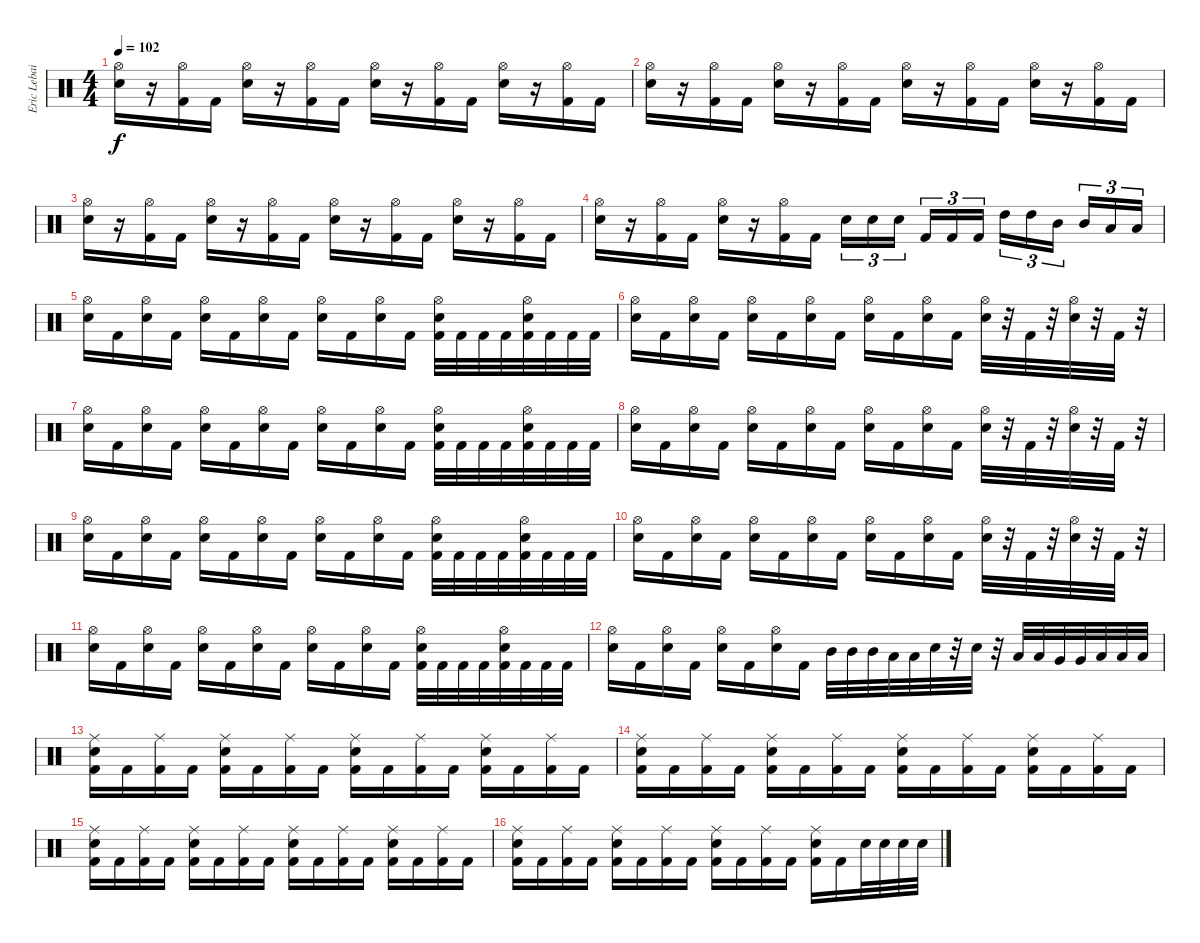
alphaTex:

\track ("Eric Lebailly" "Eric Lebai") {instrument percussion}
\staff {score}
\articulation defaults
\ts (4 4)
\tempo 102
\clef neutral
\ks c
("Hi-Hat (open)" "Snare (hit) 2").16{dy f} r.16 ("Hi-Hat (open)" "Kick (hit) 2").16 "Kick (hit) 2".16 ("Hi-Hat (open)" "Snare (hit) 2").16 r.16 ("Hi-Hat (open)" "Kick (hit) 2").16 "Kick (hit) 2".16 ("Hi-Hat (open)" "Snare (hit) 2").16 r.16 ("Hi-Hat (open)" "Kick (hit) 2").16 "Kick (hit) 2".16 ("Hi-Hat (open)" "Snare (hit) 2").16 r.16 ("Hi-Hat (open)" "Kick (hit) 2").16 "Kick (hit) 2".16 |
("Hi-Hat (open)" "Snare (hit) 2").16 r.16 ("Hi-Hat (open)" "Kick (hit) 2").16 "Kick (hit) 2".16 ("Hi-Hat (open)" "Snare (hit) 2").16 r.16 ("Hi-Hat (open)" "Kick (hit) 2").16 "Kick (hit) 2".16 ("Hi-Hat (open)" "Snare (hit) 2").16 r.16 ("Hi-Hat (open)" "Kick (hit) 2").16 "Kick (hit) 2".16 ("Hi-Hat (open)" "Snare (hit) 2").16 r.16 ("Hi-Hat (open)" "Kick (hit) 2").16 "Kick (hit) 2".16 |
("Hi-Hat (open)" "Snare (hit) 2").16 r.16 ("Hi-Hat (open)" "Kick (hit) 2").16 "Kick (hit) 2".16 ("Hi-Hat (open)" "Snare (hit) 2").16 r.16 ("Hi-Hat (open)" "Kick (hit) 2").16 "Kick (hit) 2".16 ("Hi-Hat (open)" "Snare (hit) 2").16 r.16 ("Hi-Hat (open)" "Kick (hit) 2").16 "Kick (hit) 2".16 ("Hi-Hat (open)" "Snare (hit) 2").16 r.16 ("Hi-Hat (open)" "Kick (hit) 2").16 "Kick (hit) 2".16 |
("Hi-Hat (open)" "Snare (hit) 2").16 r.16 ("Hi-Hat (open)" "Kick (hit) 2").16 "Kick (hit) 2".16 ("Hi-Hat (open)" "Snare (hit) 2").16 r.16 ("Hi-Hat (open)" "Kick (hit) 2").16 "Kick (hit) 2".16 "Snare (hit) 2".16{tu (3 2)} "Snare (hit) 2".16{tu (3 2)} "Snare (hit) 2".16{tu (3 2) beam splitsecondary} "Kick (hit) 2".16{tu (3 2)} "Kick (hit) 2".16{tu (3 2)} "Kick (hit) 2".16{tu (3 2)} "High Tom (hit)".16{tu (3 2)} "High Tom (hit)".16{tu (3 2)} "Mid Tom (hit)".16{tu (3 2) beam splitsecondary} "Mid Tom (hit)".16{tu (3 2)} "Low Tom (hit)".16{tu (3 2)} "Low Tom (hit)".16{tu (3 2)} |
("Hi-Hat (open)" "Snare (hit) 2").16 "Kick (hit) 2".16 ("Hi-Hat (open)" "Snare (hit) 2").16 "Kick (hit) 2".16 ("Hi-Hat (open)" "Snare (hit) 2").16 "Kick (hit) 2".16 ("Hi-Hat (open)" "Snare (hit) 2").16 "Kick (hit) 2".16 ("Hi-Hat (open)" "Snare (hit) 2").16 "Kick (hit) 2".16 ("Hi-Hat (open)" "Snare (hit) 2").16 "Kick (hit) 2".16 ("Hi-Hat (open)" "Snare (hit) 2" "Kick (hit) 2").32 "Kick (hit) 2".32 "Kick (hit) 2".32 "Kick (hit) 2".32 ("Hi-Hat (open)" "Snare (hit) 2" "Kick (hit) 2").32 "Kick (hit) 2".32 "Kick (hit) 2".32 "Kick (hit) 2".32 |
("Hi-Hat (open)" "Snare (hit) 2").16 "Kick (hit) 2".16 ("Hi-Hat (open)" "Snare (hit) 2").16 "Kick (hit) 2".16 ("Hi-Hat (open)" "Snare (hit) 2").16 "Kick (hit) 2".16 ("Hi-Hat (open)" "Snare (hit) 2").16 "Kick (hit) 2".16 ("Hi-Hat (open)" "Snare (hit) 2").16 "Kick (hit) 2".16 ("Hi-Hat (open)" "Snare (hit) 2").16 "Kick (hit) 2".16 ("Hi-Hat (open)" "Snare (hit) 2").32 r.32 "Kick (hit) 2".32 r.32 ("Hi-Hat (open)" "Snare (hit) 2").32 r.32 "Kick (hit) 2".32 r.32 |
("Hi-Hat (open)" "Snare (hit) 2").16 "Kick (hit) 2".16 ("Hi-Hat (open)" "Snare (hit) 2").16 "Kick (hit) 2".16 ("Hi-Hat (open)" "Snare (hit) 2").16 "Kick (hit) 2".16 ("Hi-Hat (open)" "Snare (hit) 2").16 "Kick (hit) 2".16 ("Hi-Hat (open)" "Snare (hit) 2").16 "Kick (hit) 2".16 ("Hi-Hat (open)" "Snare (hit) 2").16 "Kick (hit) 2".16 ("Hi-Hat (open)" "Snare (hit) 2" "Kick (hit) 2").32 "Kick (hit) 2".32 "Kick (hit) 2".32 "Kick (hit) 2".32 ("Hi-Hat (open)" "Snare (hit) 2" "Kick (hit) 2").32 "Kick (hit) 2".32 "Kick (hit) 2".32 "Kick (hit) 2".32 |
("Hi-Hat (open)" "Snare (hit) 2").16 "Kick (hit) 2".16 ("Hi-Hat (open)" "Snare (hit) 2").16 "Kick (hit) 2".16 ("Hi-Hat (open)" "Snare (hit) 2").16 "Kick (hit) 2".16 ("Hi-Hat (open)" "Snare (hit) 2").16 "Kick (hit) 2".16 ("Hi-Hat (open)" "Snare (hit) 2").16 "Kick (hit) 2".16 ("Hi-Hat (open)" "Snare (hit) 2").16 "Kick (hit) 2".16 ("Hi-Hat (open)" "Snare (hit) 2").32 r.32 "Kick (hit) 2".32 r.32 ("Hi-Hat (open)" "Snare (hit) 2").32 r.32 "Kick (hit) 2".32 r.32 |
("Hi-Hat (open)" "Snare (hit) 2").16 "Kick (hit) 2".16 ("Hi-Hat (open)" "Snare (hit) 2").16 "Kick (hit) 2".16 ("Hi-Hat (open)" "Snare (hit) 2").16 "Kick (hit) 2".16 ("Hi-Hat (open)" "Snare (hit) 2").16 "Kick (hit) 2".16 ("Hi-Hat (open)" "Snare (hit) 2").16 "Kick (hit) 2".16 ("Hi-Hat (open)" "Snare (hit) 2").16 "Kick (hit) 2".16 ("Hi-Hat (open)" "Snare (hit) 2" "Kick (hit) 2").32 "Kick (hit) 2".32 "Kick (hit) 2".32 "Kick (hit) 2".32 ("Hi-Hat (open)" "Snare (hit) 2" "Kick (hit) 2").32 "Kick (hit) 2".32 "Kick (hit) 2".32 "Kick (hit) 2".32 |
("Hi-Hat (open)" "Snare (hit) 2").16 "Kick (hit) 2".16 ("Hi-Hat (open)" "Snare (hit) 2").16 "Kick (hit) 2".16 ("Hi-Hat (open)" "Snare (hit) 2").16 "Kick (hit) 2".16 ("Hi-Hat (open)" "Snare (hit) 2").16 "Kick (hit) 2".16 ("Hi-Hat (open)" "Snare (hit) 2").16 "Kick (hit) 2".16 ("Hi-Hat (open)" "Snare (hit) 2").16 "Kick (hit) 2".16 ("Hi-Hat (open)" "Snare (hit) 2").32 r.32 "Kick (hit) 2".32 r.32 ("Hi-Hat (open)" "Snare (hit) 2").32 r.32 "Kick (hit) 2".32 r.32 |
("Hi-Hat (open)" "Snare (hit) 2").16 "Kick (hit) 2".16 ("Hi-Hat (open)" "Snare (hit) 2").16 "Kick (hit) 2".16 ("Hi-Hat (open)" "Snare (hit) 2").16 "Kick (hit) 2".16 ("Hi-Hat (open)" "Snare (hit) 2").16 "Kick (hit) 2".16 ("Hi-Hat (open)" "Snare (hit) 2").16 "Kick (hit) 2".16 ("Hi-Hat (open)" "Snare (hit) 2").16 "Kick (hit) 2".16 ("Hi-Hat (open)" "Snare (hit) 2" "Kick (hit) 2").32 "Kick (hit) 2".32 "Kick (hit) 2".32 "Kick (hit) 2".32 ("Hi-Hat (open)" "Snare (hit) 2" "Kick (hit) 2").32 "Kick (hit) 2".32 "Kick (hit) 2".32 "Kick (hit) 2".32 |
("Hi-Hat (open)" "Snare (hit) 2").16 "Kick (hit) 2".16 ("Hi-Hat (open)" "Snare (hit) 2").16 "Kick (hit) 2".16 ("Hi-Hat (open)" "Snare (hit) 2").16 "Kick (hit) 2".16 ("Hi-Hat (open)" "Snare (hit) 2").16 "Kick (hit) 2".16 "Mid Tom (hit)".32 "Mid Tom (hit)".32 "Mid Tom (hit)".32 "Low Tom (hit)".32 "Low Tom (hit)".32 "Snare (hit) 2".32 r.32 "Snare (hit) 2".32 r.32 "Low Tom (hit)".32 "Low Tom (hit)".32 "Very Low Tom (hit)".32 "Very Low Tom (hit)".32 "Low Floor Tom (hit)".32 "Low Floor Tom (hit)".32 "Low Floor Tom (hit)".32 |
("Ride (middle)" "Snare (hit) 2" "Kick (hit) 2").16 "Kick (hit) 2".16 ("Ride (middle)" "Kick (hit) 2").16 "Kick (hit) 2".16 ("Ride (middle)" "Snare (hit) 2" "Kick (hit) 2").16 "Kick (hit) 2".16 ("Ride (middle)" "Kick (hit) 2").16 "Kick (hit) 2".16 ("Ride (middle)" "Snare (hit) 2" "Kick (hit) 2").16 "Kick (hit) 2".16 ("Ride (middle)" "Kick (hit) 2").16 "Kick (hit) 2".16 ("Ride (middle)" "Snare (hit) 2" "Kick (hit) 2").16 "Kick (hit) 2".16 ("Ride (middle)" "Kick (hit) 2").16 "Kick (hit) 2".16 |
("Ride (middle)" "Snare (hit) 2" "Kick (hit) 2").16 "Kick (hit) 2".16 ("Ride (middle)" "Kick (hit) 2").16 "Kick (hit) 2".16 ("Ride (middle)" "Snare (hit) 2" "Kick (hit) 2").16 "Kick (hit) 2".16 ("Ride (middle)" "Kick (hit) 2").16 "Kick (hit) 2".16 ("Ride (middle)" "Snare (hit) 2" "Kick (hit) 2").16 "Kick (hit) 2".16 ("Ride (middle)" "Kick (hit) 2").16 "Kick (hit) 2".16 ("Ride (middle)" "Snare (hit) 2" "Kick (hit) 2").16 "Kick (hit) 2".16 ("Ride (middle)" "Kick (hit) 2").16 "Kick (hit) 2".16 |
("Ride (middle)" "Snare (hit) 2" "Kick (hit) 2").16 "Kick (hit) 2".16 ("Ride (middle)" "Kick (hit) 2").16 "Kick (hit) 2".16 ("Ride (middle)" "Snare (hit) 2" "Kick (hit) 2").16 "Kick (hit) 2".16 ("Ride (middle)" "Kick (hit) 2").16 "Kick (hit) 2".16 ("Ride (middle)" "Snare (hit) 2" "Kick (hit) 2").16 "Kick (hit) 2".16 ("Ride (middle)" "Kick (hit) 2").16 "Kick (hit) 2".16 ("Ride (middle)" "Snare (hit) 2" "Kick (hit) 2").16 "Kick (hit) 2".16 ("Ride (middle)" "Kick (hit) 2").16 "Kick (hit) 2".16 |
("Ride (middle)" "Snare (hit) 2" "Kick (hit) 2").16 "Kick (hit) 2".16 ("Ride (middle)" "Kick (hit) 2").16 "Kick (hit) 2".16 ("Ride (middle)" "Snare (hit) 2" "Kick (hit) 2").16 "Kick (hit) 2".16 ("Ride (middle)" "Kick (hit) 2").16 "Kick (hit) 2".16 ("Ride (middle)" "Snare (hit) 2" "Kick (hit) 2").16 "Kick (hit) 2".16 ("Ride (middle)" "Kick (hit) 2").16 "Kick (hit) 2".16 ("Ride (middle)" "Snare (hit) 2" "Kick (hit) 2").16 "Kick (hit) 2".16 "Snare (hit) 2".32 "Snare (hit) 2".32 "Snare (hit) 2".32 "Snare (hit) 2".32
